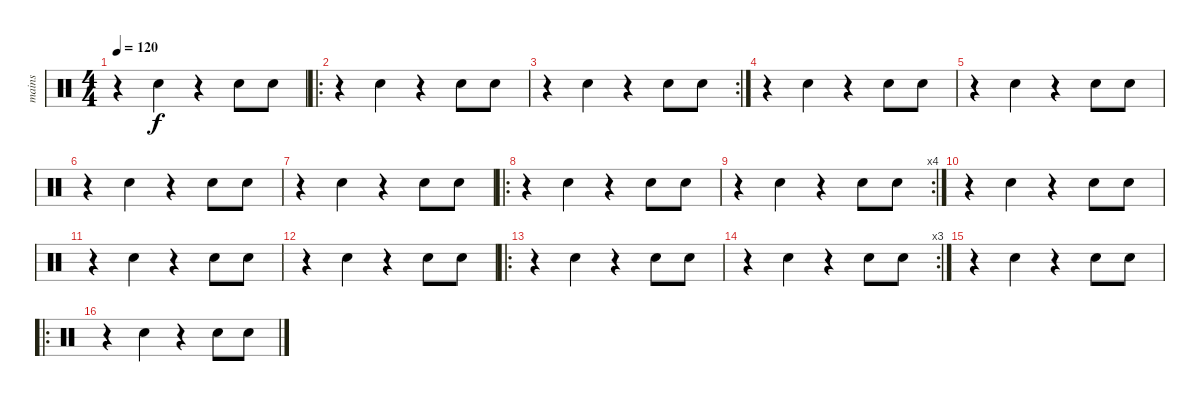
\track ("mains" "mains") {instrument percussion}
\staff {score}
\articulation defaults
\ts (4 4)
\tempo 120
\clef neutral
\ks c
r.4{dy f} "Hand Clap (hit)".4 r.4 "Hand Clap (hit)".8 "Hand Clap (hit)".8 |
\ro
r.4 "Hand Clap (hit)".4 r.4 "Hand Clap (hit)".8 "Hand Clap (hit)".8 |
\rc 2
r.4 "Hand Clap (hit)".4 r.4 "Hand Clap (hit)".8 "Hand Clap (hit)".8 |
r.4 "Hand Clap (hit)".4 r.4 "Hand Clap (hit)".8 "Hand Clap (hit)".8 |
r.4 "Hand Clap (hit)".4 r.4 "Hand Clap (hit)".8 "Hand Clap (hit)".8 |
r.4 "Hand Clap (hit)".4 r.4 "Hand Clap (hit)".8 "Hand Clap (hit)".8 |
r.4 "Hand Clap (hit)".4 r.4 "Hand Clap (hit)".8 "Hand Clap (hit)".8 |
\ro
r.4 "Hand Clap (hit)".4 r.4 "Hand Clap (hit)".8 "Hand Clap (hit)".8 |
\rc 4
r.4 "Hand Clap (hit)".4 r.4 "Hand Clap (hit)".8 "Hand Clap (hit)".8 |
r.4 "Hand Clap (hit)".4 r.4 "Hand Clap (hit)".8 "Hand Clap (hit)".8 |
r.4 "Hand Clap (hit)".4 r.4 "Hand Clap (hit)".8 "Hand Clap (hit)".8 |
r.4 "Hand Clap (hit)".4 r.4 "Hand Clap (hit)".8 "Hand Clap (hit)".8 |
\ro
r.4 "Hand Clap (hit)".4 r.4 "Hand Clap (hit)".8 "Hand Clap (hit)".8 |
\rc 3
r.4 "Hand Clap (hit)".4 r.4 "Hand Clap (hit)".8 "Hand Clap (hit)".8 |
r.4 "Hand Clap (hit)".4 r.4 "Hand Clap (hit)".8 "Hand Clap (hit)".8 |
\ro
r.4 "Hand Clap (hit)".4 r.4 "Hand Clap (hit)".8 "Hand Clap (hit)".8
